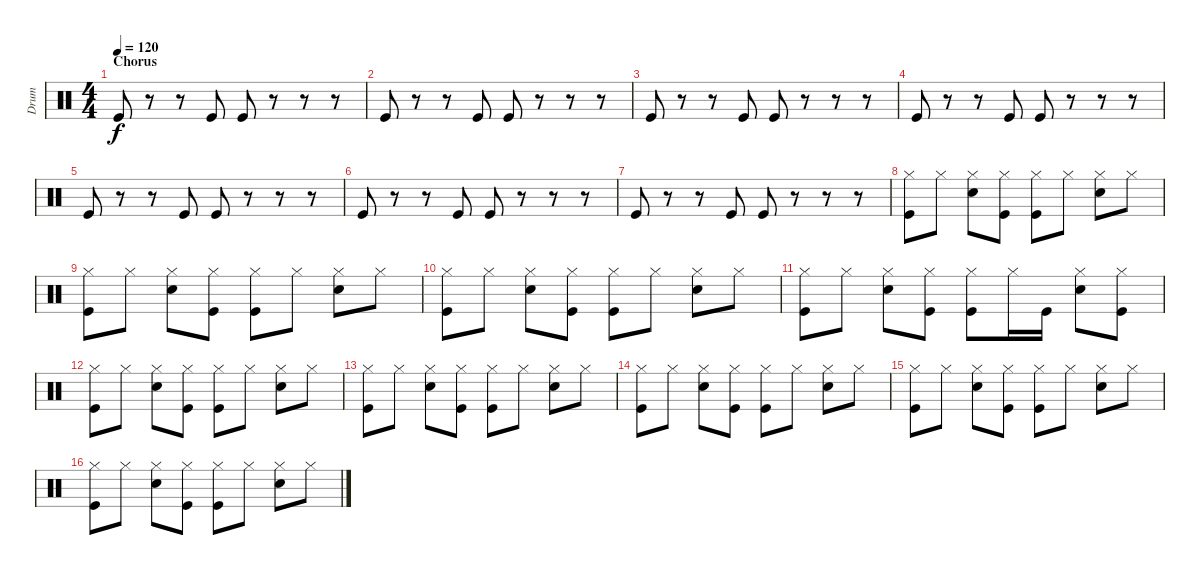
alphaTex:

\track ("Drum" "Drum") {instrument percussion}
\staff {score}
\articulation defaults
\ts (4 4)
\section ("" "Chorus")
\tempo 120
\clef neutral
\ks c "Kick (hit)".8{dy f}
r.8 r.8 "Kick (hit)".8 "Kick (hit)".8 r.8 r.8 r.8 |
"Kick (hit)".8 r.8 r.8 "Kick (hit)".8 "Kick (hit)".8 r.8 r.8 r.8 |
"Kick (hit)".8 r.8 r.8 "Kick (hit)".8 "Kick (hit)".8 r.8 r.8 r.8 |
"Kick (hit)".8 r.8 r.8 "Kick (hit)".8 "Kick (hit)".8 r.8 r.8 r.8 |
"Kick (hit)".8 r.8 r.8 "Kick (hit)".8 "Kick (hit)".8 r.8 r.8 r.8 |
"Kick (hit)".8 r.8 r.8 "Kick (hit)".8 "Kick (hit)".8 r.8 r.8 r.8 |
"Kick (hit)".8 r.8 r.8 "Kick (hit)".8 "Kick (hit)".8 r.8 r.8 r.8 |
("Hi-Hat (closed)" "Kick (hit)").8 "Hi-Hat (closed)".8 ("Hi-Hat (closed)" "Snare (hit) 2").8 ("Hi-Hat (closed)" "Kick (hit)").8 ("Hi-Hat (closed)" "Kick (hit)").8 "Hi-Hat (closed)".8 ("Hi-Hat (closed)" "Snare (hit) 2").8 "Hi-Hat (closed)".8 |
("Hi-Hat (closed)" "Kick (hit)").8 "Hi-Hat (closed)".8 ("Hi-Hat (closed)" "Snare (hit) 2").8 ("Hi-Hat (closed)" "Kick (hit)").8 ("Hi-Hat (closed)" "Kick (hit)").8 "Hi-Hat (closed)".8 ("Hi-Hat (closed)" "Snare (hit) 2").8 "Hi-Hat (closed)".8 |
("Hi-Hat (closed)" "Kick (hit)").8 "Hi-Hat (closed)".8 ("Hi-Hat (closed)" "Snare (hit) 2").8 ("Hi-Hat (closed)" "Kick (hit)").8 ("Hi-Hat (closed)" "Kick (hit)").8 "Hi-Hat (closed)".8 ("Hi-Hat (closed)" "Snare (hit) 2").8 "Hi-Hat (closed)".8 |
("Hi-Hat (closed)" "Kick (hit)").8 "Hi-Hat (closed)".8 ("Hi-Hat (closed)" "Snare (hit) 2").8 ("Hi-Hat (closed)" "Kick (hit)").8 ("Hi-Hat (closed)" "Kick (hit)").8 "Hi-Hat (closed)".16 "Kick (hit)".16 ("Hi-Hat (closed)" "Snare (hit) 2").8 ("Hi-Hat (closed)" "Kick (hit)").8 |
("Hi-Hat (closed)" "Kick (hit)").8 "Hi-Hat (closed)".8 ("Hi-Hat (closed)" "Snare (hit) 2").8 ("Hi-Hat (closed)" "Kick (hit)").8 ("Hi-Hat (closed)" "Kick (hit)").8 "Hi-Hat (closed)".8 ("Hi-Hat (closed)" "Snare (hit) 2").8 "Hi-Hat (closed)".8 |
("Hi-Hat (closed)" "Kick (hit)").8 "Hi-Hat (closed)".8 ("Hi-Hat (closed)" "Snare (hit) 2").8 ("Hi-Hat (closed)" "Kick (hit)").8 ("Hi-Hat (closed)" "Kick (hit)").8 "Hi-Hat (closed)".8 ("Hi-Hat (closed)" "Snare (hit) 2").8 "Hi-Hat (closed)".8 |
("Hi-Hat (closed)" "Kick (hit)").8 "Hi-Hat (closed)".8 ("Hi-Hat (closed)" "Snare (hit) 2").8 ("Hi-Hat (closed)" "Kick (hit)").8 ("Hi-Hat (closed)" "Kick (hit)").8 "Hi-Hat (closed)".8 ("Hi-Hat (closed)" "Snare (hit) 2").8 "Hi-Hat (closed)".8 |
("Hi-Hat (closed)" "Kick (hit)").8 "Hi-Hat (closed)".8 ("Hi-Hat (closed)" "Snare (hit) 2").8 ("Hi-Hat (closed)" "Kick (hit)").8 ("Hi-Hat (closed)" "Kick (hit)").8 "Hi-Hat (closed)".8 ("Hi-Hat (closed)" "Snare (hit) 2").8 "Hi-Hat (closed)".8 |
("Hi-Hat (closed)" "Kick (hit)").8 "Hi-Hat (closed)".8 ("Hi-Hat (closed)" "Snare (hit) 2").8 ("Hi-Hat (closed)" "Kick (hit)").8 ("Hi-Hat (closed)" "Kick (hit)").8 "Hi-Hat (closed)".8 ("Hi-Hat (closed)" "Snare (hit) 2").8 "Hi-Hat (closed)".8
